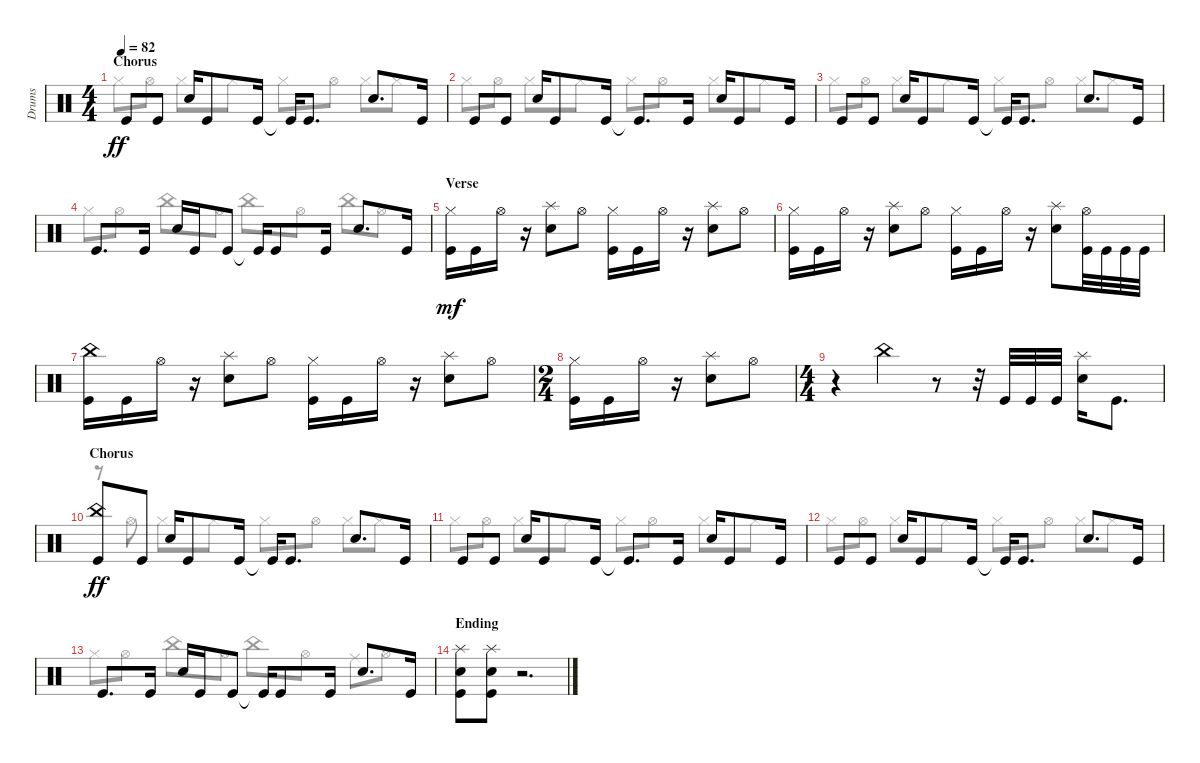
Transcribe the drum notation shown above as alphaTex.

\track ("Drums" "Drums") {instrument percussion}
\staff {score}
\articulation defaults
\voice
\ts (4 4)
\section ("" "Chorus")
\tempo 82
\clef neutral
\ks c "Kick (hit)".8{dy ff} "Kick (hit)".8 "Snare (hit) 2".16 "Kick (hit)".8 "Kick (hit)".16 "Kick (hit)"{t}.16 "Kick (hit)".8{d} "Snare (hit) 2".8{d} "Kick (hit)".16
|
"Kick (hit)".8 "Kick (hit)".8 "Snare (hit) 2".16 "Kick (hit)".8 "Kick (hit)".16 "Kick (hit)"{t}.8{d} "Kick (hit)".16 "Snare (hit) 2".16 "Kick (hit)".8 "Kick (hit)".16 |
"Kick (hit)".8 "Kick (hit)".8 "Snare (hit) 2".16 "Kick (hit)".8 "Kick (hit)".16 "Kick (hit)"{t}.16 "Kick (hit)".8{d} "Snare (hit) 2".8{d} "Kick (hit)".16 |
"Kick (hit)".8{d} "Kick (hit)".16 "Snare (hit) 2".16 "Kick (hit)".16 "Kick (hit)".8 "Kick (hit)"{t}.16 "Kick (hit)".8 "Kick (hit)".16 "Snare (hit) 2".8{d} "Kick (hit)".16 |
\section ("" "Verse")
("Kick (hit)" "Hi-Hat (closed)").16{dy mf} "Kick (hit)".16 "Hi-Hat (open)".16 r.16 ("Snare (hit) 2" "Splash (hit)").8 "Hi-Hat (open)".8 ("Kick (hit)" "Hi-Hat (closed)").16 "Kick (hit)".16 "Hi-Hat (open)".16 r.16 ("Snare (hit) 2" "Splash (hit)").8 "Hi-Hat (open)".8 |
("Kick (hit)" "Hi-Hat (closed)").16 "Kick (hit)".16 "Hi-Hat (open)".16 r.16 ("Snare (hit) 2" "Splash (hit)").8 "Hi-Hat (open)".8 ("Kick (hit)" "Hi-Hat (closed)").16 "Kick (hit)".16 "Hi-Hat (open)".16 r.16 ("Snare (hit) 2" "Splash (hit)").8 ("Hi-Hat (open)" "Kick (hit)").32 "Kick (hit)".32 "Kick (hit)".32 "Kick (hit)".32 |
("Kick (hit)" "China (hit)").16 "Kick (hit)".16 "Hi-Hat (open)".16 r.16 ("Snare (hit) 2" "Splash (hit)").8 "Hi-Hat (open)".8 ("Kick (hit)" "Hi-Hat (closed)").16 "Kick (hit)".16 "Hi-Hat (open)".16 r.16 ("Snare (hit) 2" "Splash (hit)").8 "Hi-Hat (open)".8 |
\ts (2 4)
("Kick (hit)" "Hi-Hat (closed)").16 "Kick (hit)".16 "Hi-Hat (open)".16 r.16 ("Snare (hit) 2" "Splash (hit)").8 "Hi-Hat (open)".8 |
\ts (4 4)
r.4 "China (hit)".4 r.8 r.32 "Kick (hit)".32 "Kick (hit)".32 "Kick (hit)".32 ("Snare (hit) 2" "Splash (hit)").16 "Kick (hit)".8{d} |
\section ("" "Chorus")
("Kick (hit)" "China (hit)").8{dy ff} "Kick (hit)".8 "Snare (hit) 2".16 "Kick (hit)".8 "Kick (hit)".16 "Kick (hit)"{t}.16 "Kick (hit)".8{d} "Snare (hit) 2".8{d} "Kick (hit)".16 |
"Kick (hit)".8 "Kick (hit)".8 "Snare (hit) 2".16 "Kick (hit)".8 "Kick (hit)".16 "Kick (hit)"{t}.8{d} "Kick (hit)".16 "Snare (hit) 2".16 "Kick (hit)".8 "Kick (hit)".16 |
"Kick (hit)".8 "Kick (hit)".8 "Snare (hit) 2".16 "Kick (hit)".8 "Kick (hit)".16 "Kick (hit)"{t}.16 "Kick (hit)".8{d} "Snare (hit) 2".8{d} "Kick (hit)".16 |
"Kick (hit)".8{d} "Kick (hit)".16 "Snare (hit) 2".16 "Kick (hit)".16 "Kick (hit)".8 "Kick (hit)"{t}.16 "Kick (hit)".8 "Kick (hit)".16 "Snare (hit) 2".8{d} "Kick (hit)".16 |
\section ("" "Ending")
("Kick (hit)" "Snare (hit) 2" "Splash (hit)").8 ("Kick (hit)" "Snare (hit) 2" "Splash (hit)").8 r.2{d}
\voice
\clef neutral
\ottava regular
\simile none
\ks c "Hi-Hat (closed)".8{dy ff} "Hi-Hat (open)".8 "Hi-Hat (closed)".8 "Hi-Hat (closed)".8 "Hi-Hat (closed)".8 "Hi-Hat (open)".8 "Hi-Hat (closed)".8 "Hi-Hat (closed)".8
|
"Hi-Hat (closed)".8 "Hi-Hat (open)".8 "Hi-Hat (closed)".8 "Hi-Hat (closed)".8 "Hi-Hat (closed)".8 "Hi-Hat (open)".8 "Hi-Hat (closed)".8 "Hi-Hat (closed)".8 |
"Hi-Hat (closed)".8 "Hi-Hat (open)".8 "Hi-Hat (closed)".8 "Hi-Hat (closed)".8 "Hi-Hat (closed)".8 "Hi-Hat (open)".8 "Hi-Hat (closed)".8 "Hi-Hat (closed)".8 |
"Hi-Hat (closed)".8 "Hi-Hat (open)".8 "China (hit)".8 "Hi-Hat (open)".8 "China (hit)".8 "Hi-Hat (open)".8 "China (hit)".8 "Hi-Hat (open)".8 |
|
|
|
|
|
r.8 "Hi-Hat (open)".8 "Hi-Hat (closed)".8 "Hi-Hat (closed)".8 "Hi-Hat (closed)".8 "Hi-Hat (open)".8 "Hi-Hat (closed)".8 "Hi-Hat (closed)".8 |
"Hi-Hat (closed)".8 "Hi-Hat (open)".8 "Hi-Hat (closed)".8 "Hi-Hat (closed)".8 "Hi-Hat (closed)".8 "Hi-Hat (open)".8 "Hi-Hat (closed)".8 "Hi-Hat (closed)".8 |
"Hi-Hat (closed)".8 "Hi-Hat (open)".8 "Hi-Hat (closed)".8 "Hi-Hat (closed)".8 "Hi-Hat (closed)".8 "Hi-Hat (open)".8 "Hi-Hat (closed)".8 "Hi-Hat (closed)".8 |
"Hi-Hat (closed)".8 "Hi-Hat (open)".8 "China (hit)".8 "Hi-Hat (open)".8 "China (hit)".8 "Hi-Hat (open)".8 "Ride (middle)".8 "Hi-Hat (open)".8 |
